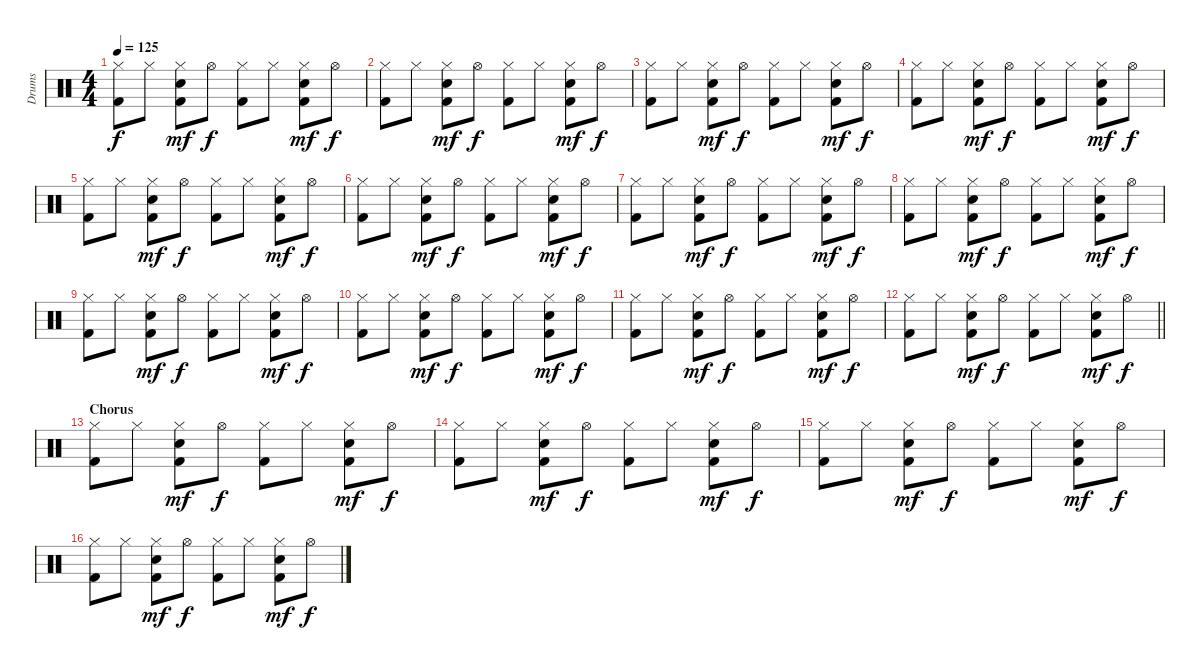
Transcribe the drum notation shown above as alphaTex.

\track ("Drums" "Drums") {instrument percussion}
\staff {score}
\articulation defaults
\ts (4 4)
\tempo 125
\clef neutral
\ks c
("Hi-Hat (closed)" "Kick (hit) 2").8{dy f} "Hi-Hat (closed)".8 ("Hi-Hat (closed)" "Snare (hit) 2" "Kick (hit) 2").8{dy mf} "Hi-Hat (open)".8{dy f} ("Hi-Hat (closed)" "Kick (hit) 2").8 "Hi-Hat (closed)".8 ("Hi-Hat (closed)" "Snare (hit) 2" "Kick (hit) 2").8{dy mf} "Hi-Hat (open)".8{dy f} |
("Hi-Hat (closed)" "Kick (hit) 2").8 "Hi-Hat (closed)".8 ("Hi-Hat (closed)" "Snare (hit) 2" "Kick (hit) 2").8{dy mf} "Hi-Hat (open)".8{dy f} ("Hi-Hat (closed)" "Kick (hit) 2").8 "Hi-Hat (closed)".8 ("Hi-Hat (closed)" "Snare (hit) 2" "Kick (hit) 2").8{dy mf} "Hi-Hat (open)".8{dy f} |
("Hi-Hat (closed)" "Kick (hit) 2").8 "Hi-Hat (closed)".8 ("Hi-Hat (closed)" "Snare (hit) 2" "Kick (hit) 2").8{dy mf} "Hi-Hat (open)".8{dy f} ("Hi-Hat (closed)" "Kick (hit) 2").8 "Hi-Hat (closed)".8 ("Hi-Hat (closed)" "Snare (hit) 2" "Kick (hit) 2").8{dy mf} "Hi-Hat (open)".8{dy f} |
("Hi-Hat (closed)" "Kick (hit) 2").8 "Hi-Hat (closed)".8 ("Hi-Hat (closed)" "Snare (hit) 2" "Kick (hit) 2").8{dy mf} "Hi-Hat (open)".8{dy f} ("Hi-Hat (closed)" "Kick (hit) 2").8 "Hi-Hat (closed)".8 ("Hi-Hat (closed)" "Snare (hit) 2" "Kick (hit) 2").8{dy mf} "Hi-Hat (open)".8{dy f} |
("Hi-Hat (closed)" "Kick (hit) 2").8 "Hi-Hat (closed)".8 ("Hi-Hat (closed)" "Snare (hit) 2" "Kick (hit) 2").8{dy mf} "Hi-Hat (open)".8{dy f} ("Hi-Hat (closed)" "Kick (hit) 2").8 "Hi-Hat (closed)".8 ("Hi-Hat (closed)" "Snare (hit) 2" "Kick (hit) 2").8{dy mf} "Hi-Hat (open)".8{dy f} |
("Hi-Hat (closed)" "Kick (hit) 2").8 "Hi-Hat (closed)".8 ("Hi-Hat (closed)" "Snare (hit) 2" "Kick (hit) 2").8{dy mf} "Hi-Hat (open)".8{dy f} ("Hi-Hat (closed)" "Kick (hit) 2").8 "Hi-Hat (closed)".8 ("Hi-Hat (closed)" "Snare (hit) 2" "Kick (hit) 2").8{dy mf} "Hi-Hat (open)".8{dy f} |
("Hi-Hat (closed)" "Kick (hit) 2").8 "Hi-Hat (closed)".8 ("Hi-Hat (closed)" "Snare (hit) 2" "Kick (hit) 2").8{dy mf} "Hi-Hat (open)".8{dy f} ("Hi-Hat (closed)" "Kick (hit) 2").8 "Hi-Hat (closed)".8 ("Hi-Hat (closed)" "Snare (hit) 2" "Kick (hit) 2").8{dy mf} "Hi-Hat (open)".8{dy f} |
("Hi-Hat (closed)" "Kick (hit) 2").8 "Hi-Hat (closed)".8 ("Hi-Hat (closed)" "Snare (hit) 2" "Kick (hit) 2").8{dy mf} "Hi-Hat (open)".8{dy f} ("Hi-Hat (closed)" "Kick (hit) 2").8 "Hi-Hat (closed)".8 ("Hi-Hat (closed)" "Snare (hit) 2" "Kick (hit) 2").8{dy mf} "Hi-Hat (open)".8{dy f} |
("Hi-Hat (closed)" "Kick (hit) 2").8 "Hi-Hat (closed)".8 ("Hi-Hat (closed)" "Snare (hit) 2" "Kick (hit) 2").8{dy mf} "Hi-Hat (open)".8{dy f} ("Hi-Hat (closed)" "Kick (hit) 2").8 "Hi-Hat (closed)".8 ("Hi-Hat (closed)" "Snare (hit) 2" "Kick (hit) 2").8{dy mf} "Hi-Hat (open)".8{dy f} |
("Hi-Hat (closed)" "Kick (hit) 2").8 "Hi-Hat (closed)".8 ("Hi-Hat (closed)" "Snare (hit) 2" "Kick (hit) 2").8{dy mf} "Hi-Hat (open)".8{dy f} ("Hi-Hat (closed)" "Kick (hit) 2").8 "Hi-Hat (closed)".8 ("Hi-Hat (closed)" "Snare (hit) 2" "Kick (hit) 2").8{dy mf} "Hi-Hat (open)".8{dy f} |
("Hi-Hat (closed)" "Kick (hit) 2").8 "Hi-Hat (closed)".8 ("Hi-Hat (closed)" "Snare (hit) 2" "Kick (hit) 2").8{dy mf} "Hi-Hat (open)".8{dy f} ("Hi-Hat (closed)" "Kick (hit) 2").8 "Hi-Hat (closed)".8 ("Hi-Hat (closed)" "Snare (hit) 2" "Kick (hit) 2").8{dy mf} "Hi-Hat (open)".8{dy f} |
\barLineRight lightlight
("Hi-Hat (closed)" "Kick (hit) 2").8 "Hi-Hat (closed)".8 ("Hi-Hat (closed)" "Snare (hit) 2" "Kick (hit) 2").8{dy mf} "Hi-Hat (open)".8{dy f} ("Hi-Hat (closed)" "Kick (hit) 2").8 "Hi-Hat (closed)".8 ("Hi-Hat (closed)" "Snare (hit) 2" "Kick (hit) 2").8{dy mf} "Hi-Hat (open)".8{dy f} |
\section ("" "Chorus")
("Hi-Hat (closed)" "Kick (hit) 2").8 "Hi-Hat (closed)".8 ("Hi-Hat (closed)" "Snare (hit) 2" "Kick (hit) 2").8{dy mf} "Hi-Hat (open)".8{dy f} ("Hi-Hat (closed)" "Kick (hit) 2").8 "Hi-Hat (closed)".8 ("Hi-Hat (closed)" "Snare (hit) 2" "Kick (hit) 2").8{dy mf} "Hi-Hat (open)".8{dy f} |
("Hi-Hat (closed)" "Kick (hit) 2").8 "Hi-Hat (closed)".8 ("Hi-Hat (closed)" "Snare (hit) 2" "Kick (hit) 2").8{dy mf} "Hi-Hat (open)".8{dy f} ("Hi-Hat (closed)" "Kick (hit) 2").8 "Hi-Hat (closed)".8 ("Hi-Hat (closed)" "Snare (hit) 2" "Kick (hit) 2").8{dy mf} "Hi-Hat (open)".8{dy f} |
("Hi-Hat (closed)" "Kick (hit) 2").8 "Hi-Hat (closed)".8 ("Hi-Hat (closed)" "Snare (hit) 2" "Kick (hit) 2").8{dy mf} "Hi-Hat (open)".8{dy f} ("Hi-Hat (closed)" "Kick (hit) 2").8 "Hi-Hat (closed)".8 ("Hi-Hat (closed)" "Snare (hit) 2" "Kick (hit) 2").8{dy mf} "Hi-Hat (open)".8{dy f} |
("Hi-Hat (closed)" "Kick (hit) 2").8 "Hi-Hat (closed)".8 ("Hi-Hat (closed)" "Snare (hit) 2" "Kick (hit) 2").8{dy mf} "Hi-Hat (open)".8{dy f} ("Hi-Hat (closed)" "Kick (hit) 2").8 "Hi-Hat (closed)".8 ("Hi-Hat (closed)" "Snare (hit) 2" "Kick (hit) 2").8{dy mf} "Hi-Hat (open)".8{dy f}
